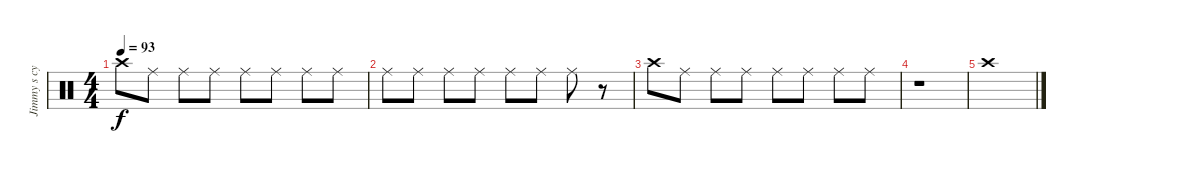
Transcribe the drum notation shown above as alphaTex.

\track ("Jimmy s cymbals" "Jimmy s cy") {instrument percussion}
\staff {score}
\articulation defaults
\ts (4 4)
\tempo 93
\clef neutral
\ks c "Crash high (hit)".8{dy f} "Ride (middle)".8 "Ride (middle)".8 "Ride (middle)".8 "Ride (middle)".8 "Ride (middle)".8 "Ride (middle)".8 "Ride (middle)".8
|
"Ride (middle)".8 "Ride (middle)".8 "Ride (middle)".8 "Ride (middle)".8 "Ride (middle)".8 "Ride (middle)".8 "Ride (middle)".8 r.8 |
"Crash high (hit)".8 "Ride (middle)".8 "Ride (middle)".8 "Ride (middle)".8 "Ride (middle)".8 "Ride (middle)".8 "Ride (middle)".8 "Ride (middle)".8 |
r.1 |
"Crash high (hit)".1
